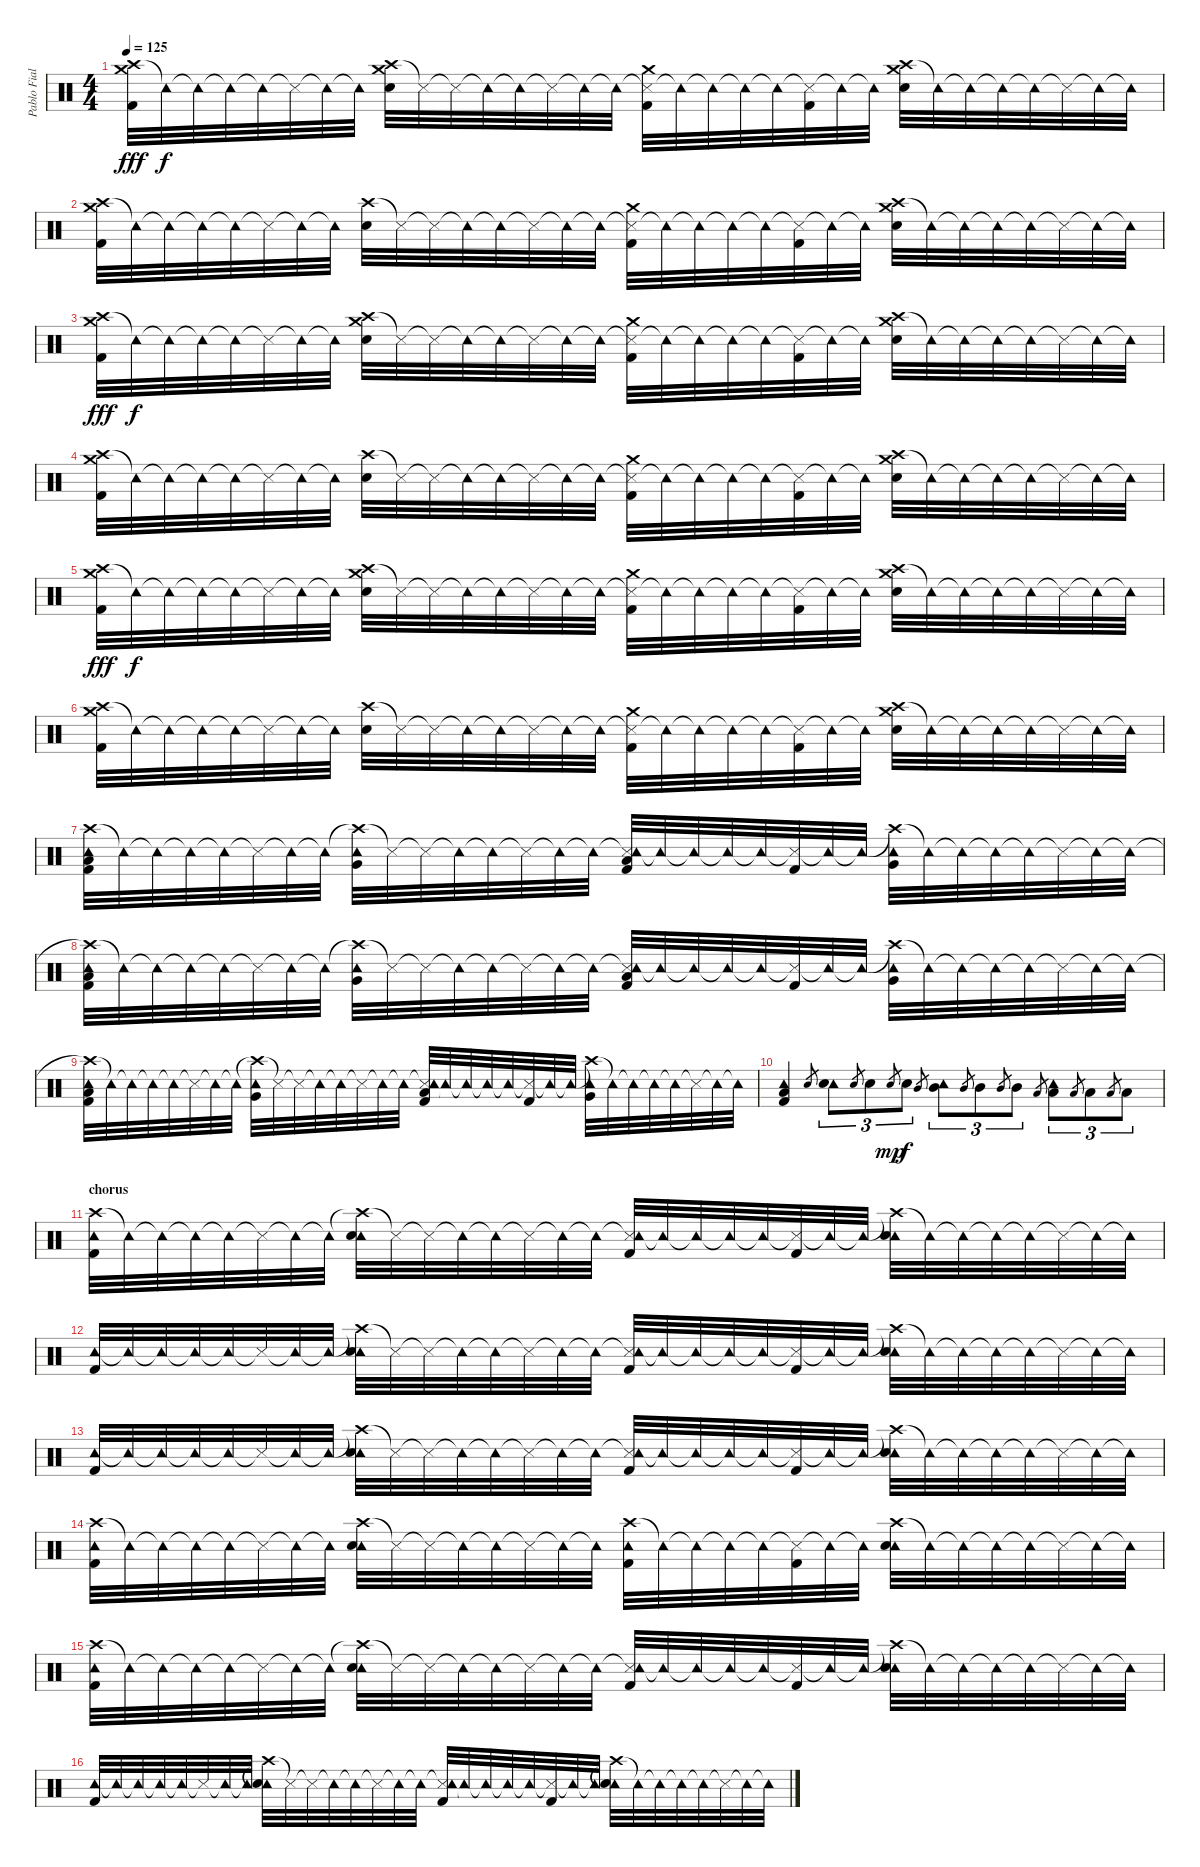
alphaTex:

\track ("Pablo Fiallo" "Pablo Fial") {instrument percussion}
\staff {score}
\articulation defaults
\ts (4 4)
\tempo 125
\clef neutral
\ks c
("Crash high (hit)" "Crash medium (hit)" "Kick (hit) 2").32{dy fff} "Tambourine (hit)"{t}.32{dy f} "Tambourine (hit)"{t}.32 "Tambourine (hit)"{t}.32 "Tambourine (hit)"{t}.32 "Snare (side stick) 3"{t}.32 "Tambourine (hit)"{t}.32 "Tambourine (hit)"{t}.32 ("Crash high (hit)" "Crash medium (hit)" "Snare (hit) 2").32 "Snare (side stick) 3"{t}.32 "Snare (side stick) 3"{t}.32 "Tambourine (hit)"{t}.32 "Tambourine (hit)"{t}.32 "Snare (side stick) 3"{t}.32 "Tambourine (hit)"{t}.32 "Tambourine (hit)"{t}.32 ("Snare (side stick) 3"{t} "Crash medium (hit)" "Kick (hit) 2").32 "Tambourine (hit)"{t}.32 "Tambourine (hit)"{t}.32 "Tambourine (hit)"{t}.32 "Tambourine (hit)"{t}.32 ("Snare (side stick) 3"{t} "Kick (hit) 2").32 "Tambourine (hit)"{t}.32 "Tambourine (hit)"{t}.32 ("Crash high (hit)" "Crash medium (hit)" "Snare (hit) 2").32 "Tambourine (hit)"{t}.32 "Tambourine (hit)"{t}.32 "Tambourine (hit)"{t}.32 "Tambourine (hit)"{t}.32 "Snare (side stick) 3"{t}.32 "Tambourine (hit)"{t}.32 "Tambourine (hit)"{t}.32 |
("Crash high (hit)" "Crash medium (hit)" "Kick (hit) 2").32 "Tambourine (hit)"{t}.32 "Tambourine (hit)"{t}.32 "Tambourine (hit)"{t}.32 "Tambourine (hit)"{t}.32 "Snare (side stick) 3"{t}.32 "Tambourine (hit)"{t}.32 "Tambourine (hit)"{t}.32 ("Crash high (hit)" "Snare (hit) 2").32 "Snare (side stick) 3"{t}.32 "Snare (side stick) 3"{t}.32 "Tambourine (hit)"{t}.32 "Tambourine (hit)"{t}.32 "Snare (side stick) 3"{t}.32 "Tambourine (hit)"{t}.32 "Tambourine (hit)"{t}.32 ("Snare (side stick) 3"{t} "Crash medium (hit)" "Kick (hit) 2").32 "Tambourine (hit)"{t}.32 "Tambourine (hit)"{t}.32 "Tambourine (hit)"{t}.32 "Tambourine (hit)"{t}.32 ("Snare (side stick) 3"{t} "Kick (hit) 2").32 "Tambourine (hit)"{t}.32 "Tambourine (hit)"{t}.32 ("Crash high (hit)" "Crash medium (hit)" "Snare (hit) 2").32 "Tambourine (hit)"{t}.32 "Tambourine (hit)"{t}.32 "Tambourine (hit)"{t}.32 "Tambourine (hit)"{t}.32 "Snare (side stick) 3"{t}.32 "Tambourine (hit)"{t}.32 "Tambourine (hit)"{t}.32 |
("Crash high (hit)" "Crash medium (hit)" "Kick (hit) 2").32{dy fff} "Tambourine (hit)"{t}.32{dy f} "Tambourine (hit)"{t}.32 "Tambourine (hit)"{t}.32 "Tambourine (hit)"{t}.32 "Snare (side stick) 3"{t}.32 "Tambourine (hit)"{t}.32 "Tambourine (hit)"{t}.32 ("Crash high (hit)" "Crash medium (hit)" "Snare (hit) 2").32 "Snare (side stick) 3"{t}.32 "Snare (side stick) 3"{t}.32 "Tambourine (hit)"{t}.32 "Tambourine (hit)"{t}.32 "Snare (side stick) 3"{t}.32 "Tambourine (hit)"{t}.32 "Tambourine (hit)"{t}.32 ("Snare (side stick) 3"{t} "Crash medium (hit)" "Kick (hit) 2").32 "Tambourine (hit)"{t}.32 "Tambourine (hit)"{t}.32 "Tambourine (hit)"{t}.32 "Tambourine (hit)"{t}.32 ("Snare (side stick) 3"{t} "Kick (hit) 2").32 "Tambourine (hit)"{t}.32 "Tambourine (hit)"{t}.32 ("Crash high (hit)" "Crash medium (hit)" "Snare (hit) 2").32 "Tambourine (hit)"{t}.32 "Tambourine (hit)"{t}.32 "Tambourine (hit)"{t}.32 "Tambourine (hit)"{t}.32 "Snare (side stick) 3"{t}.32 "Tambourine (hit)"{t}.32 "Tambourine (hit)"{t}.32 |
("Crash high (hit)" "Crash medium (hit)" "Kick (hit) 2").32 "Tambourine (hit)"{t}.32 "Tambourine (hit)"{t}.32 "Tambourine (hit)"{t}.32 "Tambourine (hit)"{t}.32 "Snare (side stick) 3"{t}.32 "Tambourine (hit)"{t}.32 "Tambourine (hit)"{t}.32 ("Crash high (hit)" "Snare (hit) 2").32 "Snare (side stick) 3"{t}.32 "Snare (side stick) 3"{t}.32 "Tambourine (hit)"{t}.32 "Tambourine (hit)"{t}.32 "Snare (side stick) 3"{t}.32 "Tambourine (hit)"{t}.32 "Tambourine (hit)"{t}.32 ("Snare (side stick) 3"{t} "Crash medium (hit)" "Kick (hit) 2").32 "Tambourine (hit)"{t}.32 "Tambourine (hit)"{t}.32 "Tambourine (hit)"{t}.32 "Tambourine (hit)"{t}.32 ("Snare (side stick) 3"{t} "Kick (hit) 2").32 "Tambourine (hit)"{t}.32 "Tambourine (hit)"{t}.32 ("Crash high (hit)" "Crash medium (hit)" "Snare (hit) 2").32 "Tambourine (hit)"{t}.32 "Tambourine (hit)"{t}.32 "Tambourine (hit)"{t}.32 "Tambourine (hit)"{t}.32 "Snare (side stick) 3"{t}.32 "Tambourine (hit)"{t}.32 "Tambourine (hit)"{t}.32 |
("Crash high (hit)" "Crash medium (hit)" "Kick (hit) 2").32{dy fff} "Tambourine (hit)"{t}.32{dy f} "Tambourine (hit)"{t}.32 "Tambourine (hit)"{t}.32 "Tambourine (hit)"{t}.32 "Snare (side stick) 3"{t}.32 "Tambourine (hit)"{t}.32 "Tambourine (hit)"{t}.32 ("Crash high (hit)" "Crash medium (hit)" "Snare (hit) 2").32 "Snare (side stick) 3"{t}.32 "Snare (side stick) 3"{t}.32 "Tambourine (hit)"{t}.32 "Tambourine (hit)"{t}.32 "Snare (side stick) 3"{t}.32 "Tambourine (hit)"{t}.32 "Tambourine (hit)"{t}.32 ("Snare (side stick) 3"{t} "Crash medium (hit)" "Kick (hit) 2").32 "Tambourine (hit)"{t}.32 "Tambourine (hit)"{t}.32 "Tambourine (hit)"{t}.32 "Tambourine (hit)"{t}.32 ("Snare (side stick) 3"{t} "Kick (hit) 2").32 "Tambourine (hit)"{t}.32 "Tambourine (hit)"{t}.32 ("Crash high (hit)" "Crash medium (hit)" "Snare (hit) 2").32 "Tambourine (hit)"{t}.32 "Tambourine (hit)"{t}.32 "Tambourine (hit)"{t}.32 "Tambourine (hit)"{t}.32 "Snare (side stick) 3"{t}.32 "Tambourine (hit)"{t}.32 "Tambourine (hit)"{t}.32 |
("Crash high (hit)" "Crash medium (hit)" "Kick (hit) 2").32 "Tambourine (hit)"{t}.32 "Tambourine (hit)"{t}.32 "Tambourine (hit)"{t}.32 "Tambourine (hit)"{t}.32 "Snare (side stick) 3"{t}.32 "Tambourine (hit)"{t}.32 "Tambourine (hit)"{t}.32 ("Crash high (hit)" "Snare (hit) 2").32 "Snare (side stick) 3"{t}.32 "Snare (side stick) 3"{t}.32 "Tambourine (hit)"{t}.32 "Tambourine (hit)"{t}.32 "Snare (side stick) 3"{t}.32 "Tambourine (hit)"{t}.32 "Tambourine (hit)"{t}.32 ("Snare (side stick) 3"{t} "Crash medium (hit)" "Kick (hit) 2").32 "Tambourine (hit)"{t}.32 "Tambourine (hit)"{t}.32 "Tambourine (hit)"{t}.32 "Tambourine (hit)"{t}.32 ("Snare (side stick) 3"{t} "Kick (hit) 2").32 "Tambourine (hit)"{t}.32 "Tambourine (hit)"{t}.32 ("Crash high (hit)" "Crash medium (hit)" "Snare (hit) 2").32 "Tambourine (hit)"{t}.32 "Tambourine (hit)"{t}.32 "Tambourine (hit)"{t}.32 "Tambourine (hit)"{t}.32 "Snare (side stick) 3"{t}.32 "Tambourine (hit)"{t}.32 "Tambourine (hit)"{t}.32 |
("Crash high (hit)" "Tambourine (hit)" "Low Floor Tom (hit)" "Kick (hit) 2").32 "Tambourine (hit)"{t}.32 "Tambourine (hit)"{t}.32 "Tambourine (hit)"{t}.32 "Tambourine (hit)"{t}.32 "Snare (side stick) 3"{t}.32 "Tambourine (hit)"{t}.32 "Tambourine (hit)"{t}.32 ("Crash high (hit)"{t} "Tambourine (hit)" "Very Low Tom (hit)").32 "Snare (side stick) 3"{t}.32 "Snare (side stick) 3"{t}.32 "Tambourine (hit)"{t}.32 "Tambourine (hit)"{t}.32 "Snare (side stick) 3"{t}.32 "Tambourine (hit)"{t}.32 "Tambourine (hit)"{t}.32 ("Snare (side stick) 3"{t} "Tambourine (hit)" "Low Floor Tom (hit)" "Kick (hit) 2").32 "Tambourine (hit)"{t}.32 "Tambourine (hit)"{t}.32 "Tambourine (hit)"{t}.32 "Tambourine (hit)"{t}.32 ("Snare (side stick) 3"{t} "Kick (hit) 2").32 "Tambourine (hit)"{t}.32 "Tambourine (hit)"{t}.32 ("Crash high (hit)"{t} "Tambourine (hit)" "Very Low Tom (hit)").32 "Tambourine (hit)"{t}.32 "Tambourine (hit)"{t}.32 "Tambourine (hit)"{t}.32 "Tambourine (hit)"{t}.32 "Snare (side stick) 3"{t}.32 "Tambourine (hit)"{t}.32 "Tambourine (hit)"{t}.32 |
("Crash high (hit)"{t} "Tambourine (hit)" "Low Floor Tom (hit)" "Kick (hit) 2").32 "Tambourine (hit)"{t}.32 "Tambourine (hit)"{t}.32 "Tambourine (hit)"{t}.32 "Tambourine (hit)"{t}.32 "Snare (side stick) 3"{t}.32 "Tambourine (hit)"{t}.32 "Tambourine (hit)"{t}.32 ("Crash high (hit)"{t} "Tambourine (hit)" "Very Low Tom (hit)").32 "Snare (side stick) 3"{t}.32 "Snare (side stick) 3"{t}.32 "Tambourine (hit)"{t}.32 "Tambourine (hit)"{t}.32 "Snare (side stick) 3"{t}.32 "Tambourine (hit)"{t}.32 "Tambourine (hit)"{t}.32 ("Snare (side stick) 3"{t} "Tambourine (hit)" "Low Floor Tom (hit)" "Kick (hit) 2").32 "Tambourine (hit)"{t}.32 "Tambourine (hit)"{t}.32 "Tambourine (hit)"{t}.32 "Tambourine (hit)"{t}.32 ("Snare (side stick) 3"{t} "Kick (hit) 2").32 "Tambourine (hit)"{t}.32 "Tambourine (hit)"{t}.32 ("Crash high (hit)"{t} "Tambourine (hit)" "Very Low Tom (hit)").32 "Tambourine (hit)"{t}.32 "Tambourine (hit)"{t}.32 "Tambourine (hit)"{t}.32 "Tambourine (hit)"{t}.32 "Snare (side stick) 3"{t}.32 "Tambourine (hit)"{t}.32 "Tambourine (hit)"{t}.32 |
("Crash high (hit)"{t} "Tambourine (hit)" "Low Floor Tom (hit)" "Kick (hit) 2").32 "Tambourine (hit)"{t}.32 "Tambourine (hit)"{t}.32 "Tambourine (hit)"{t}.32 "Tambourine (hit)"{t}.32 "Snare (side stick) 3"{t}.32 "Tambourine (hit)"{t}.32 "Tambourine (hit)"{t}.32 ("Crash high (hit)"{t} "Tambourine (hit)" "Very Low Tom (hit)").32 "Snare (side stick) 3"{t}.32 "Snare (side stick) 3"{t}.32 "Tambourine (hit)"{t}.32 "Tambourine (hit)"{t}.32 "Snare (side stick) 3"{t}.32 "Tambourine (hit)"{t}.32 "Tambourine (hit)"{t}.32 ("Snare (side stick) 3"{t} "Tambourine (hit)" "Low Floor Tom (hit)" "Kick (hit) 2").32 "Tambourine (hit)"{t}.32 "Tambourine (hit)"{t}.32 "Tambourine (hit)"{t}.32 "Tambourine (hit)"{t}.32 ("Snare (side stick) 3"{t} "Kick (hit) 2").32 "Tambourine (hit)"{t}.32 "Tambourine (hit)"{t}.32 ("Crash high (hit)"{t} "Tambourine (hit)" "Very Low Tom (hit)").32 "Tambourine (hit)"{t}.32 "Tambourine (hit)"{t}.32 "Tambourine (hit)"{t}.32 "Tambourine (hit)"{t}.32 "Snare (side stick) 3"{t}.32 "Tambourine (hit)"{t}.32 "Tambourine (hit)"{t}.32 |
("Tambourine (hit)" "Low Floor Tom (hit)" "Kick (hit) 2").4 "Snare (hit) 2".8{gr} ("Tambourine (hit)" "Snare (hit) 2").8{tu (3 2)} "Snare (hit) 2".8{gr} "Snare (hit) 2".8{tu (3 2)} "Snare (hit) 2".8{gr dy mp} "Snare (hit) 2".8{tu (3 2) dy f} "Mid Tom (hit)".8{gr} ("Tambourine (hit)" "Mid Tom (hit)").8{tu (3 2)} "Mid Tom (hit)".8{gr} "Mid Tom (hit)".8{tu (3 2)} "Mid Tom (hit)".8{gr} "Mid Tom (hit)".8{tu (3 2)} "Low Tom (hit)".8{gr} ("Tambourine (hit)" "Low Tom (hit)").8{tu (3 2)} "Low Tom (hit)".8{gr} "Low Tom (hit)".8{tu (3 2)} "Low Tom (hit)".8{gr} "Low Tom (hit)".8{tu (3 2)} |
\section ("" "chorus")
("Crash high (hit)" "Tambourine (hit)" "Kick (hit) 2").32 "Tambourine (hit)"{t}.32 "Tambourine (hit)"{t}.32 "Tambourine (hit)"{t}.32 "Tambourine (hit)"{t}.32 "Snare (side stick) 3"{t}.32 "Tambourine (hit)"{t}.32 "Tambourine (hit)"{t}.32 ("Crash high (hit)"{t} "Tambourine (hit)" "Snare (hit) 2").32 "Snare (side stick) 3"{t}.32 "Snare (side stick) 3"{t}.32 "Tambourine (hit)"{t}.32 "Tambourine (hit)"{t}.32 "Snare (side stick) 3"{t}.32 "Tambourine (hit)"{t}.32 "Tambourine (hit)"{t}.32 ("Snare (side stick) 3"{t} "Tambourine (hit)" "Kick (hit) 2").32 "Tambourine (hit)"{t}.32 "Tambourine (hit)"{t}.32 "Tambourine (hit)"{t}.32 "Tambourine (hit)"{t}.32 ("Snare (side stick) 3"{t} "Kick (hit) 2").32 "Tambourine (hit)"{t}.32 "Tambourine (hit)"{t}.32 ("Crash high (hit)"{t} "Tambourine (hit)" "Snare (hit) 2").32 "Tambourine (hit)"{t}.32 "Tambourine (hit)"{t}.32 "Tambourine (hit)"{t}.32 "Tambourine (hit)"{t}.32 "Snare (side stick) 3"{t}.32 "Tambourine (hit)"{t}.32 "Tambourine (hit)"{t}.32 |
("Tambourine (hit)" "Kick (hit) 2").32 "Tambourine (hit)"{t}.32 "Tambourine (hit)"{t}.32 "Tambourine (hit)"{t}.32 "Tambourine (hit)"{t}.32 "Snare (side stick) 3"{t}.32 "Tambourine (hit)"{t}.32 "Tambourine (hit)"{t}.32 ("Crash high (hit)"{t} "Tambourine (hit)" "Snare (hit) 2").32 "Snare (side stick) 3"{t}.32 "Snare (side stick) 3"{t}.32 "Tambourine (hit)"{t}.32 "Tambourine (hit)"{t}.32 "Snare (side stick) 3"{t}.32 "Tambourine (hit)"{t}.32 "Tambourine (hit)"{t}.32 ("Snare (side stick) 3"{t} "Tambourine (hit)" "Kick (hit) 2").32 "Tambourine (hit)"{t}.32 "Tambourine (hit)"{t}.32 "Tambourine (hit)"{t}.32 "Tambourine (hit)"{t}.32 ("Snare (side stick) 3"{t} "Kick (hit) 2").32 "Tambourine (hit)"{t}.32 "Tambourine (hit)"{t}.32 ("Crash high (hit)"{t} "Tambourine (hit)" "Snare (hit) 2").32 "Tambourine (hit)"{t}.32 "Tambourine (hit)"{t}.32 "Tambourine (hit)"{t}.32 "Tambourine (hit)"{t}.32 "Snare (side stick) 3"{t}.32 "Tambourine (hit)"{t}.32 "Tambourine (hit)"{t}.32 |
("Tambourine (hit)" "Kick (hit) 2").32 "Tambourine (hit)"{t}.32 "Tambourine (hit)"{t}.32 "Tambourine (hit)"{t}.32 "Tambourine (hit)"{t}.32 "Snare (side stick) 3"{t}.32 "Tambourine (hit)"{t}.32 "Tambourine (hit)"{t}.32 ("Crash high (hit)"{t} "Tambourine (hit)" "Snare (hit) 2").32 "Snare (side stick) 3"{t}.32 "Snare (side stick) 3"{t}.32 "Tambourine (hit)"{t}.32 "Tambourine (hit)"{t}.32 "Snare (side stick) 3"{t}.32 "Tambourine (hit)"{t}.32 "Tambourine (hit)"{t}.32 ("Snare (side stick) 3"{t} "Tambourine (hit)" "Kick (hit) 2").32 "Tambourine (hit)"{t}.32 "Tambourine (hit)"{t}.32 "Tambourine (hit)"{t}.32 "Tambourine (hit)"{t}.32 ("Snare (side stick) 3"{t} "Kick (hit) 2").32 "Tambourine (hit)"{t}.32 "Tambourine (hit)"{t}.32 ("Crash high (hit)"{t} "Tambourine (hit)" "Snare (hit) 2").32 "Tambourine (hit)"{t}.32 "Tambourine (hit)"{t}.32 "Tambourine (hit)"{t}.32 "Tambourine (hit)"{t}.32 "Snare (side stick) 3"{t}.32 "Tambourine (hit)"{t}.32 "Tambourine (hit)"{t}.32 |
("Crash high (hit)" "Tambourine (hit)" "Kick (hit) 2").32 "Tambourine (hit)"{t}.32 "Tambourine (hit)"{t}.32 "Tambourine (hit)"{t}.32 "Tambourine (hit)"{t}.32 "Snare (side stick) 3"{t}.32 "Tambourine (hit)"{t}.32 "Tambourine (hit)"{t}.32 ("Crash high (hit)" "Tambourine (hit)" "Snare (hit) 2").32 "Snare (side stick) 3"{t}.32 "Snare (side stick) 3"{t}.32 "Tambourine (hit)"{t}.32 "Tambourine (hit)"{t}.32 "Snare (side stick) 3"{t}.32 "Tambourine (hit)"{t}.32 "Tambourine (hit)"{t}.32 ("Crash high (hit)" "Tambourine (hit)" "Kick (hit) 2").32 "Tambourine (hit)"{t}.32 "Tambourine (hit)"{t}.32 "Tambourine (hit)"{t}.32 "Tambourine (hit)"{t}.32 ("Snare (side stick) 3"{t} "Kick (hit) 2").32 "Tambourine (hit)"{t}.32 "Tambourine (hit)"{t}.32 ("Crash high (hit)" "Tambourine (hit)" "Snare (hit) 2").32 "Tambourine (hit)"{t}.32 "Tambourine (hit)"{t}.32 "Tambourine (hit)"{t}.32 "Tambourine (hit)"{t}.32 "Snare (side stick) 3"{t}.32 "Tambourine (hit)"{t}.32 "Tambourine (hit)"{t}.32 |
("Crash high (hit)" "Tambourine (hit)" "Kick (hit) 2").32 "Tambourine (hit)"{t}.32 "Tambourine (hit)"{t}.32 "Tambourine (hit)"{t}.32 "Tambourine (hit)"{t}.32 "Snare (side stick) 3"{t}.32 "Tambourine (hit)"{t}.32 "Tambourine (hit)"{t}.32 ("Crash high (hit)"{t} "Tambourine (hit)" "Snare (hit) 2").32 "Snare (side stick) 3"{t}.32 "Snare (side stick) 3"{t}.32 "Tambourine (hit)"{t}.32 "Tambourine (hit)"{t}.32 "Snare (side stick) 3"{t}.32 "Tambourine (hit)"{t}.32 "Tambourine (hit)"{t}.32 ("Snare (side stick) 3"{t} "Tambourine (hit)" "Kick (hit) 2").32 "Tambourine (hit)"{t}.32 "Tambourine (hit)"{t}.32 "Tambourine (hit)"{t}.32 "Tambourine (hit)"{t}.32 ("Snare (side stick) 3"{t} "Kick (hit) 2").32 "Tambourine (hit)"{t}.32 "Tambourine (hit)"{t}.32 ("Crash high (hit)"{t} "Tambourine (hit)" "Snare (hit) 2").32 "Tambourine (hit)"{t}.32 "Tambourine (hit)"{t}.32 "Tambourine (hit)"{t}.32 "Tambourine (hit)"{t}.32 "Snare (side stick) 3"{t}.32 "Tambourine (hit)"{t}.32 "Tambourine (hit)"{t}.32 |
("Tambourine (hit)" "Kick (hit) 2").32 "Tambourine (hit)"{t}.32 "Tambourine (hit)"{t}.32 "Tambourine (hit)"{t}.32 "Tambourine (hit)"{t}.32 "Snare (side stick) 3"{t}.32 "Tambourine (hit)"{t}.32 "Tambourine (hit)"{t}.32 ("Crash high (hit)"{t} "Tambourine (hit)" "Snare (hit) 2").32 "Snare (side stick) 3"{t}.32 "Snare (side stick) 3"{t}.32 "Tambourine (hit)"{t}.32 "Tambourine (hit)"{t}.32 "Snare (side stick) 3"{t}.32 "Tambourine (hit)"{t}.32 "Tambourine (hit)"{t}.32 ("Snare (side stick) 3"{t} "Tambourine (hit)" "Kick (hit) 2").32 "Tambourine (hit)"{t}.32 "Tambourine (hit)"{t}.32 "Tambourine (hit)"{t}.32 "Tambourine (hit)"{t}.32 ("Snare (side stick) 3"{t} "Kick (hit) 2").32 "Tambourine (hit)"{t}.32 "Tambourine (hit)"{t}.32 ("Crash high (hit)"{t} "Tambourine (hit)" "Snare (hit) 2").32 "Tambourine (hit)"{t}.32 "Tambourine (hit)"{t}.32 "Tambourine (hit)"{t}.32 "Tambourine (hit)"{t}.32 "Snare (side stick) 3"{t}.32 "Tambourine (hit)"{t}.32 "Tambourine (hit)"{t}.32
